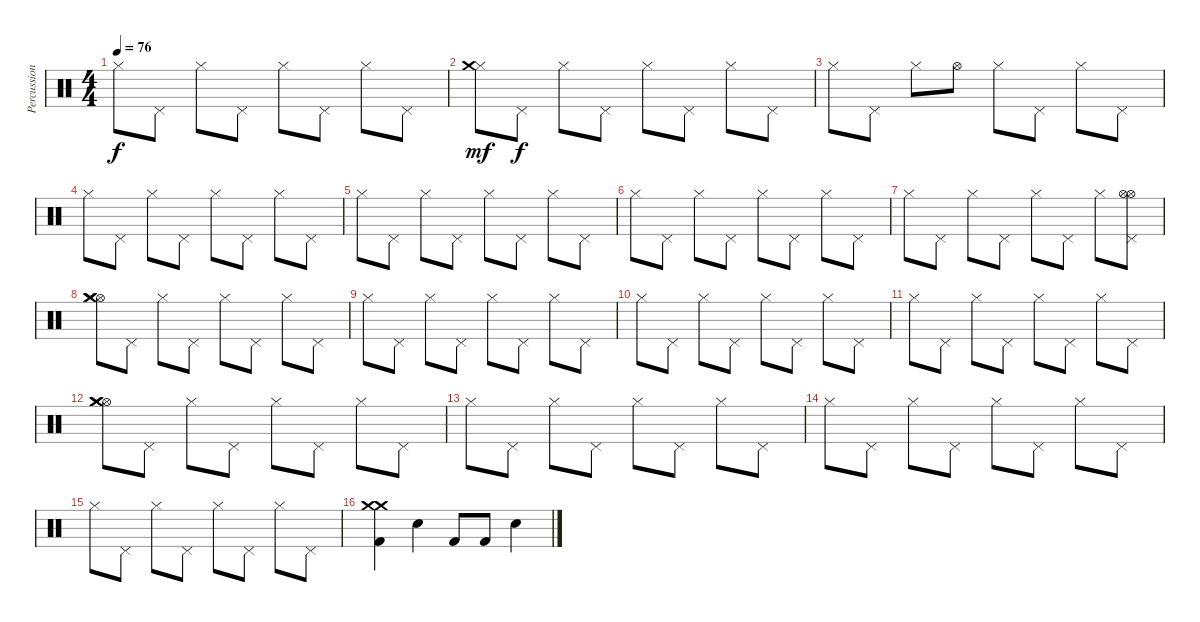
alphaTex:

\track ("Percussion" "Percussion") {instrument percussion}
\staff {score}
\articulation defaults
\ts (4 4)
\tempo 76
\clef neutral
\ks c "Hi-Hat (closed)".8{dy f} "Pedal Hi-Hat (hit)".8 "Hi-Hat (closed)".8 "Pedal Hi-Hat (hit)".8 "Hi-Hat (closed)".8 "Pedal Hi-Hat (hit)".8 "Hi-Hat (closed)".8 "Pedal Hi-Hat (hit)".8
|
("Hi-Hat (closed)" "Crash medium (hit)").8{dy mf} "Pedal Hi-Hat (hit)".8{dy f} "Hi-Hat (closed)".8 "Pedal Hi-Hat (hit)".8 "Hi-Hat (closed)".8 "Pedal Hi-Hat (hit)".8 "Hi-Hat (closed)".8 "Pedal Hi-Hat (hit)".8 |
"Hi-Hat (closed)".8 "Pedal Hi-Hat (hit)".8 "Hi-Hat (closed)".8 "Hi-Hat (open)".8 "Hi-Hat (closed)".8 "Pedal Hi-Hat (hit)".8 "Hi-Hat (closed)".8 "Pedal Hi-Hat (hit)".8 |
"Hi-Hat (closed)".8 "Pedal Hi-Hat (hit)".8 "Hi-Hat (closed)".8 "Pedal Hi-Hat (hit)".8 "Hi-Hat (closed)".8 "Pedal Hi-Hat (hit)".8 "Hi-Hat (closed)".8 "Pedal Hi-Hat (hit)".8 |
"Hi-Hat (closed)".8 "Pedal Hi-Hat (hit)".8 "Hi-Hat (closed)".8 "Pedal Hi-Hat (hit)".8 "Hi-Hat (closed)".8 "Pedal Hi-Hat (hit)".8 "Hi-Hat (closed)".8 "Pedal Hi-Hat (hit)".8 |
"Hi-Hat (closed)".8 "Pedal Hi-Hat (hit)".8 "Hi-Hat (closed)".8 "Pedal Hi-Hat (hit)".8 "Hi-Hat (closed)".8 "Pedal Hi-Hat (hit)".8 "Hi-Hat (closed)".8 "Pedal Hi-Hat (hit)".8 |
"Hi-Hat (closed)".8 "Pedal Hi-Hat (hit)".8 "Hi-Hat (closed)".8 "Pedal Hi-Hat (hit)".8 "Hi-Hat (closed)".8 "Pedal Hi-Hat (hit)".8 "Hi-Hat (closed)".8 ("Pedal Hi-Hat (hit)" "Hi-Hat (open)" "Hi-Hat (open)").8 |
("Hi-Hat (open)" "Crash medium (hit)" "Crash medium (hit)").8 "Pedal Hi-Hat (hit)".8 "Hi-Hat (closed)".8 "Pedal Hi-Hat (hit)".8 "Hi-Hat (closed)".8 "Pedal Hi-Hat (hit)".8 "Hi-Hat (closed)".8 "Pedal Hi-Hat (hit)".8 |
"Hi-Hat (closed)".8 "Pedal Hi-Hat (hit)".8 "Hi-Hat (closed)".8 "Pedal Hi-Hat (hit)".8 "Hi-Hat (closed)".8 "Pedal Hi-Hat (hit)".8 "Hi-Hat (closed)".8 "Pedal Hi-Hat (hit)".8 |
"Hi-Hat (closed)".8 "Pedal Hi-Hat (hit)".8 "Hi-Hat (closed)".8 "Pedal Hi-Hat (hit)".8 "Hi-Hat (closed)".8 "Pedal Hi-Hat (hit)".8 "Hi-Hat (closed)".8 "Pedal Hi-Hat (hit)".8 |
"Hi-Hat (closed)".8 "Pedal Hi-Hat (hit)".8 "Hi-Hat (closed)".8 "Pedal Hi-Hat (hit)".8 "Hi-Hat (closed)".8 "Pedal Hi-Hat (hit)".8 "Hi-Hat (closed)".8 "Pedal Hi-Hat (hit)".8 |
("Hi-Hat (open)" "Crash medium (hit)" "Crash medium (hit)").8 "Pedal Hi-Hat (hit)".8 "Hi-Hat (closed)".8 "Pedal Hi-Hat (hit)".8 "Hi-Hat (closed)".8 "Pedal Hi-Hat (hit)".8 "Hi-Hat (closed)".8 "Pedal Hi-Hat (hit)".8 |
"Hi-Hat (closed)".8 "Pedal Hi-Hat (hit)".8 "Hi-Hat (closed)".8 "Pedal Hi-Hat (hit)".8 "Hi-Hat (closed)".8 "Pedal Hi-Hat (hit)".8 "Hi-Hat (closed)".8 "Pedal Hi-Hat (hit)".8 |
"Hi-Hat (closed)".8 "Pedal Hi-Hat (hit)".8 "Hi-Hat (closed)".8 "Pedal Hi-Hat (hit)".8 "Hi-Hat (closed)".8 "Pedal Hi-Hat (hit)".8 "Hi-Hat (closed)".8 "Pedal Hi-Hat (hit)".8 |
"Hi-Hat (closed)".8 "Pedal Hi-Hat (hit)".8 "Hi-Hat (closed)".8 "Pedal Hi-Hat (hit)".8 "Hi-Hat (closed)".8 "Pedal Hi-Hat (hit)".8 "Hi-Hat (closed)".8 "Pedal Hi-Hat (hit)".8 |
("Kick (hit) 2" "Crash medium (hit)" "Crash medium (hit)").4 "Electric Snare (hit)".4 "Kick (hit) 2".8 "Kick (hit) 2".8 "Electric Snare (hit)".4
